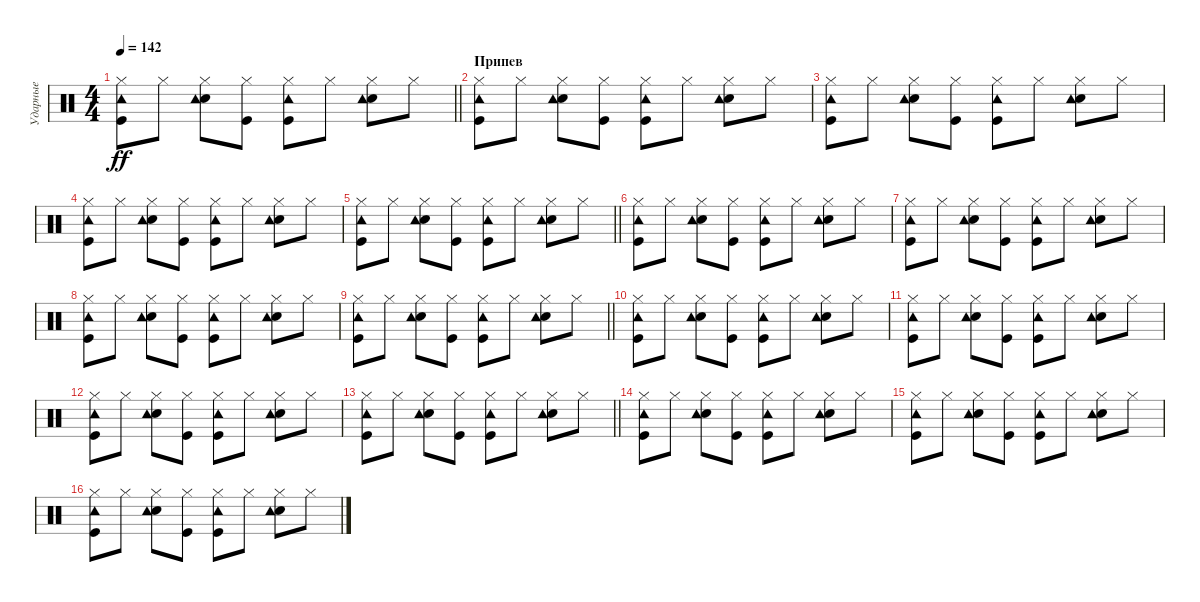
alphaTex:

\track ("Ударные" "Ударные") {instrument percussion}
\staff {score}
\articulation defaults
\ts (4 4)
\tempo 142
\clef neutral
\barLineRight lightlight
\ks c
("Hi-Hat (closed)" "Kick (hit)" "Tambourine (hit)").8{dy ff} "Hi-Hat (closed)".8 ("Hi-Hat (closed)" "Electric Snare (hit)" "Tambourine (hit)").8 ("Hi-Hat (closed)" "Kick (hit)").8 ("Hi-Hat (closed)" "Tambourine (hit)" "Kick (hit)").8 "Hi-Hat (closed)".8 ("Hi-Hat (closed)" "Electric Snare (hit)" "Tambourine (hit)").8 "Hi-Hat (closed)".8 |
\section ("" "Припев")
("Hi-Hat (closed)" "Kick (hit)" "Tambourine (hit)").8 "Hi-Hat (closed)".8 ("Hi-Hat (closed)" "Electric Snare (hit)" "Tambourine (hit)").8 ("Hi-Hat (closed)" "Kick (hit)").8 ("Hi-Hat (closed)" "Tambourine (hit)" "Kick (hit)").8 "Hi-Hat (closed)".8 ("Hi-Hat (closed)" "Electric Snare (hit)" "Tambourine (hit)").8 "Hi-Hat (closed)".8 |
("Hi-Hat (closed)" "Kick (hit)" "Tambourine (hit)").8 "Hi-Hat (closed)".8 ("Hi-Hat (closed)" "Electric Snare (hit)" "Tambourine (hit)").8 ("Hi-Hat (closed)" "Kick (hit)").8 ("Hi-Hat (closed)" "Tambourine (hit)" "Kick (hit)").8 "Hi-Hat (closed)".8 ("Hi-Hat (closed)" "Electric Snare (hit)" "Tambourine (hit)").8 "Hi-Hat (closed)".8 |
("Hi-Hat (closed)" "Kick (hit)" "Tambourine (hit)").8 "Hi-Hat (closed)".8 ("Hi-Hat (closed)" "Electric Snare (hit)" "Tambourine (hit)").8 ("Hi-Hat (closed)" "Kick (hit)").8 ("Hi-Hat (closed)" "Tambourine (hit)" "Kick (hit)").8 "Hi-Hat (closed)".8 ("Hi-Hat (closed)" "Electric Snare (hit)" "Tambourine (hit)").8 "Hi-Hat (closed)".8 |
\barLineRight lightlight
("Hi-Hat (closed)" "Kick (hit)" "Tambourine (hit)").8 "Hi-Hat (closed)".8 ("Hi-Hat (closed)" "Electric Snare (hit)" "Tambourine (hit)").8 ("Hi-Hat (closed)" "Kick (hit)").8 ("Hi-Hat (closed)" "Tambourine (hit)" "Kick (hit)").8 "Hi-Hat (closed)".8 ("Hi-Hat (closed)" "Electric Snare (hit)" "Tambourine (hit)").8 "Hi-Hat (closed)".8 |
("Hi-Hat (closed)" "Kick (hit)" "Tambourine (hit)").8 "Hi-Hat (closed)".8 ("Hi-Hat (closed)" "Electric Snare (hit)" "Tambourine (hit)").8 ("Hi-Hat (closed)" "Kick (hit)").8 ("Hi-Hat (closed)" "Tambourine (hit)" "Kick (hit)").8 "Hi-Hat (closed)".8 ("Hi-Hat (closed)" "Electric Snare (hit)" "Tambourine (hit)").8 "Hi-Hat (closed)".8 |
("Hi-Hat (closed)" "Kick (hit)" "Tambourine (hit)").8 "Hi-Hat (closed)".8 ("Hi-Hat (closed)" "Electric Snare (hit)" "Tambourine (hit)").8 ("Hi-Hat (closed)" "Kick (hit)").8 ("Hi-Hat (closed)" "Tambourine (hit)" "Kick (hit)").8 "Hi-Hat (closed)".8 ("Hi-Hat (closed)" "Electric Snare (hit)" "Tambourine (hit)").8 "Hi-Hat (closed)".8 |
("Hi-Hat (closed)" "Kick (hit)" "Tambourine (hit)").8 "Hi-Hat (closed)".8 ("Hi-Hat (closed)" "Electric Snare (hit)" "Tambourine (hit)").8 ("Hi-Hat (closed)" "Kick (hit)").8 ("Hi-Hat (closed)" "Tambourine (hit)" "Kick (hit)").8 "Hi-Hat (closed)".8 ("Hi-Hat (closed)" "Electric Snare (hit)" "Tambourine (hit)").8 "Hi-Hat (closed)".8 |
\barLineRight lightlight
("Hi-Hat (closed)" "Kick (hit)" "Tambourine (hit)").8 "Hi-Hat (closed)".8 ("Hi-Hat (closed)" "Electric Snare (hit)" "Tambourine (hit)").8 ("Hi-Hat (closed)" "Kick (hit)").8 ("Hi-Hat (closed)" "Tambourine (hit)" "Kick (hit)").8 "Hi-Hat (closed)".8 ("Hi-Hat (closed)" "Electric Snare (hit)" "Tambourine (hit)").8 "Hi-Hat (closed)".8 |
("Hi-Hat (closed)" "Kick (hit)" "Tambourine (hit)").8 "Hi-Hat (closed)".8 ("Hi-Hat (closed)" "Electric Snare (hit)" "Tambourine (hit)").8 ("Hi-Hat (closed)" "Kick (hit)").8 ("Hi-Hat (closed)" "Tambourine (hit)" "Kick (hit)").8 "Hi-Hat (closed)".8 ("Hi-Hat (closed)" "Electric Snare (hit)" "Tambourine (hit)").8 "Hi-Hat (closed)".8 |
("Hi-Hat (closed)" "Kick (hit)" "Tambourine (hit)").8 "Hi-Hat (closed)".8 ("Hi-Hat (closed)" "Electric Snare (hit)" "Tambourine (hit)").8 ("Hi-Hat (closed)" "Kick (hit)").8 ("Hi-Hat (closed)" "Tambourine (hit)" "Kick (hit)").8 "Hi-Hat (closed)".8 ("Hi-Hat (closed)" "Electric Snare (hit)" "Tambourine (hit)").8 "Hi-Hat (closed)".8 |
("Hi-Hat (closed)" "Kick (hit)" "Tambourine (hit)").8 "Hi-Hat (closed)".8 ("Hi-Hat (closed)" "Electric Snare (hit)" "Tambourine (hit)").8 ("Hi-Hat (closed)" "Kick (hit)").8 ("Hi-Hat (closed)" "Tambourine (hit)" "Kick (hit)").8 "Hi-Hat (closed)".8 ("Hi-Hat (closed)" "Electric Snare (hit)" "Tambourine (hit)").8 "Hi-Hat (closed)".8 |
\barLineRight lightlight
("Hi-Hat (closed)" "Kick (hit)" "Tambourine (hit)").8 "Hi-Hat (closed)".8 ("Hi-Hat (closed)" "Electric Snare (hit)" "Tambourine (hit)").8 ("Hi-Hat (closed)" "Kick (hit)").8 ("Hi-Hat (closed)" "Tambourine (hit)" "Kick (hit)").8 "Hi-Hat (closed)".8 ("Hi-Hat (closed)" "Electric Snare (hit)" "Tambourine (hit)").8 "Hi-Hat (closed)".8 |
("Hi-Hat (closed)" "Kick (hit)" "Tambourine (hit)").8 "Hi-Hat (closed)".8 ("Hi-Hat (closed)" "Electric Snare (hit)" "Tambourine (hit)").8 ("Hi-Hat (closed)" "Kick (hit)").8 ("Hi-Hat (closed)" "Tambourine (hit)" "Kick (hit)").8 "Hi-Hat (closed)".8 ("Hi-Hat (closed)" "Electric Snare (hit)" "Tambourine (hit)").8 "Hi-Hat (closed)".8 |
("Hi-Hat (closed)" "Kick (hit)" "Tambourine (hit)").8 "Hi-Hat (closed)".8 ("Hi-Hat (closed)" "Electric Snare (hit)" "Tambourine (hit)").8 ("Hi-Hat (closed)" "Kick (hit)").8 ("Hi-Hat (closed)" "Tambourine (hit)" "Kick (hit)").8 "Hi-Hat (closed)".8 ("Hi-Hat (closed)" "Electric Snare (hit)" "Tambourine (hit)").8 "Hi-Hat (closed)".8 |
("Hi-Hat (closed)" "Kick (hit)" "Tambourine (hit)").8 "Hi-Hat (closed)".8 ("Hi-Hat (closed)" "Electric Snare (hit)" "Tambourine (hit)").8 ("Hi-Hat (closed)" "Kick (hit)").8 ("Hi-Hat (closed)" "Tambourine (hit)" "Kick (hit)").8 "Hi-Hat (closed)".8 ("Hi-Hat (closed)" "Electric Snare (hit)" "Tambourine (hit)").8 "Hi-Hat (closed)".8
